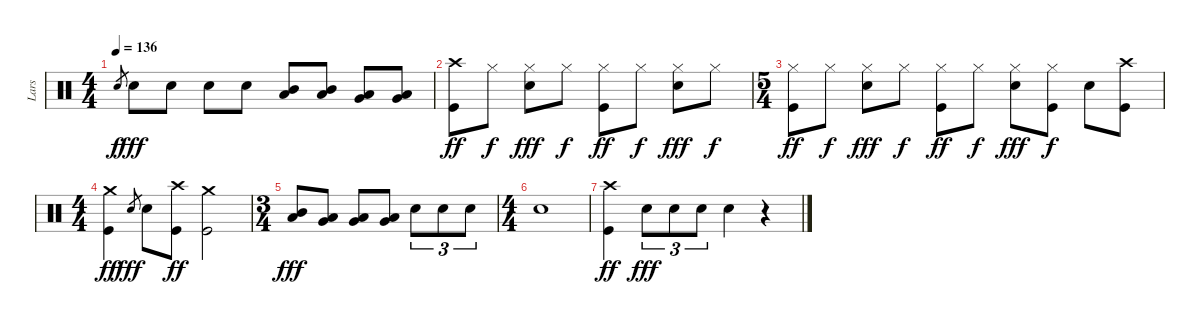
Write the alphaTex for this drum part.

\track ("Lars" "Lars") {instrument percussion}
\staff {score}
\articulation defaults
\ts (4 4)
\tempo 136
\clef neutral
\ks c "Electric Snare (hit)".8{gr dy f} "Electric Snare (hit)".8{dy fff} "Electric Snare (hit)".8 "Electric Snare (hit)".8 "Electric Snare (hit)".8
("Mid Tom (hit)" "Low Tom (hit)").8 ("Mid Tom (hit)" "Low Tom (hit)").8 ("Low Tom (hit)" "Very Low Tom (hit)").8 ("Low Tom (hit)" "Very Low Tom (hit)").8 |
("Crash high (hit)" "Kick (hit)").8{dy ff} "Hi-Hat (closed)".8{dy f} ("Hi-Hat (closed)" "Electric Snare (hit)").8{dy fff} "Hi-Hat (closed)".8{dy f} ("Hi-Hat (closed)" "Kick (hit)").8{dy ff} "Hi-Hat (closed)".8{dy f} ("Hi-Hat (closed)" "Electric Snare (hit)").8{dy fff} "Hi-Hat (closed)".8{dy f} |
\ts (5 4)
("Hi-Hat (closed)" "Kick (hit)").8{dy ff} "Hi-Hat (closed)".8{dy f} ("Hi-Hat (closed)" "Electric Snare (hit)").8{dy fff} "Hi-Hat (closed)".8{dy f} ("Hi-Hat (closed)" "Kick (hit)").8{dy ff} "Hi-Hat (closed)".8{dy f} ("Hi-Hat (closed)" "Electric Snare (hit)").8{dy fff} ("Hi-Hat (closed)" "Kick (hit)").8{dy f} "Electric Snare (hit)".8 ("Crash high (hit)" "Kick (hit)").8 |
\ts (4 4)
("Crash medium (hit)" "Kick (hit)").4{dy ff} "Electric Snare (hit)".8{gr dy fff} "Electric Snare (hit)".8 ("Crash high (hit)" "Kick (hit)").8{dy ff} ("Crash medium (hit)" "Kick (hit)").2 |
\ts (3 4)
("Mid Tom (hit)" "Low Tom (hit)").8{dy fff} ("Low Tom (hit)" "Very Low Tom (hit)").8 ("Low Tom (hit)" "Very Low Tom (hit)").8 ("Very Low Tom (hit)" "Low Floor Tom (hit)").8 "Electric Snare (hit)".8{tu (3 2)} "Electric Snare (hit)".8{tu (3 2)} "Electric Snare (hit)".8{tu (3 2)} |
\ts (4 4)
"Electric Snare (hit)".1 |
("Crash high (hit)" "Kick (hit)").4{dy ff} "Electric Snare (hit)".8{tu (3 2) dy fff} "Electric Snare (hit)".8{tu (3 2)} "Electric Snare (hit)".8{tu (3 2)} "Electric Snare (hit)".4 r.4
